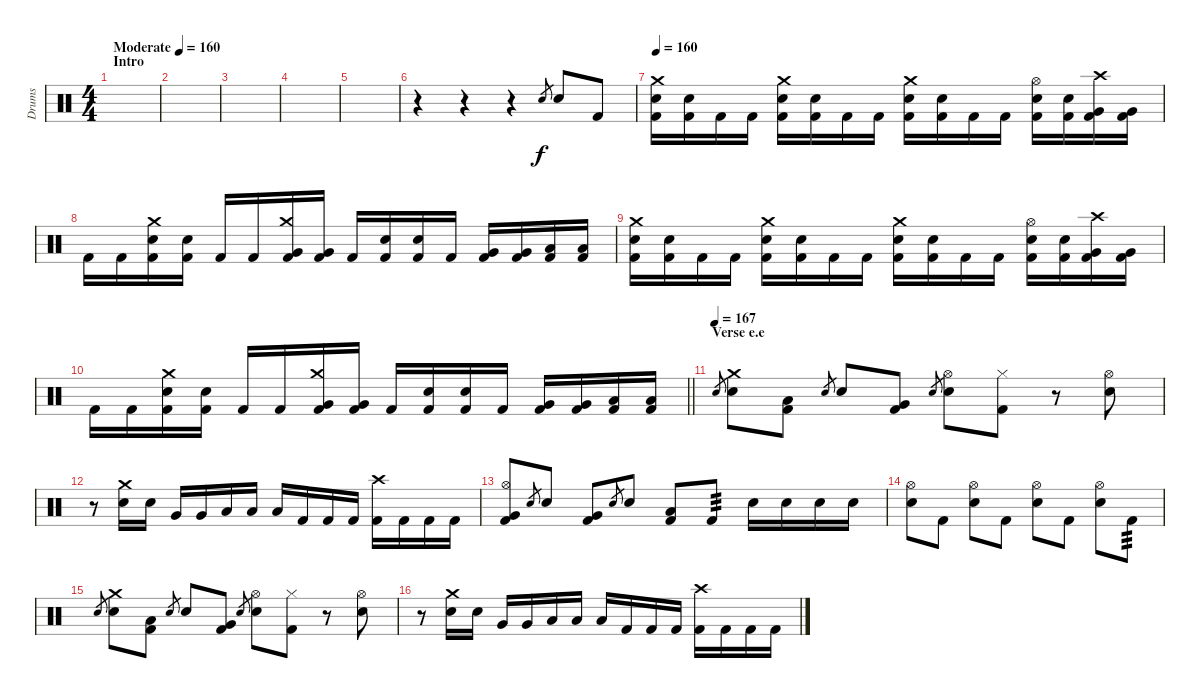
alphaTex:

\track ("Drums" "Drums") {instrument percussion}
\staff {score}
\articulation defaults
\ts (4 4)
\section ("" "Intro")
\tempo (160 "Moderate")
\tempo 153
\tempo (160 "Moderate")
\clef neutral
\ks c
|
|
|
|
|
r.4 r.4 r.4 "Electric Snare (hit)".8{gr} "Electric Snare (hit)".8 "Kick (hit) 2".8 |
\tempo 160
("Crash medium (hit)" "Electric Snare (hit)" "Kick (hit) 2").16 ("Electric Snare (hit)" "Kick (hit) 2").16 "Kick (hit) 2".16 "Kick (hit) 2".16 ("Crash medium (hit)" "Electric Snare (hit)" "Kick (hit) 2").16 ("Electric Snare (hit)" "Kick (hit) 2").16 "Kick (hit) 2".16 "Kick (hit) 2".16 ("Crash medium (hit)" "Electric Snare (hit)" "Kick (hit) 2").16 ("Electric Snare (hit)" "Kick (hit) 2").16 "Kick (hit) 2".16 "Kick (hit) 2".16 ("Hi-Hat (open)" "Electric Snare (hit)" "Kick (hit) 2").16 ("Electric Snare (hit)" "Kick (hit) 2").16 ("Crash high (hit)" "Very Low Tom (hit)" "Kick (hit) 2").16 ("Very Low Tom (hit)" "Kick (hit) 2").16 |
"Kick (hit) 2".16 "Kick (hit) 2".16 ("Crash medium (hit)" "Electric Snare (hit)" "Kick (hit) 2").16 ("Electric Snare (hit)" "Kick (hit) 2").16 "Kick (hit) 2".16 "Kick (hit) 2".16 ("Crash medium (hit)" "Very Low Tom (hit)" "Kick (hit) 2").16 ("Very Low Tom (hit)" "Kick (hit) 2").16 "Kick (hit) 2".16 ("Electric Snare (hit)" "Kick (hit) 2").16 ("Electric Snare (hit)" "Kick (hit) 2").16 "Kick (hit) 2".16 ("Very Low Tom (hit)" "Kick (hit) 2").16 ("Very Low Tom (hit)" "Kick (hit) 2").16 ("Low Floor Tom (hit)" "Kick (hit) 2").16 ("Low Floor Tom (hit)" "Kick (hit) 2").16 |
("Crash medium (hit)" "Electric Snare (hit)" "Kick (hit) 2").16 ("Electric Snare (hit)" "Kick (hit) 2").16 "Kick (hit) 2".16 "Kick (hit) 2".16 ("Crash medium (hit)" "Electric Snare (hit)" "Kick (hit) 2").16 ("Electric Snare (hit)" "Kick (hit) 2").16 "Kick (hit) 2".16 "Kick (hit) 2".16 ("Crash medium (hit)" "Electric Snare (hit)" "Kick (hit) 2").16 ("Electric Snare (hit)" "Kick (hit) 2").16 "Kick (hit) 2".16 "Kick (hit) 2".16 ("Hi-Hat (open)" "Electric Snare (hit)" "Kick (hit) 2").16 ("Electric Snare (hit)" "Kick (hit) 2").16 ("Crash high (hit)" "Very Low Tom (hit)" "Kick (hit) 2").16 ("Very Low Tom (hit)" "Kick (hit) 2").16 |
\barLineRight lightlight "Kick (hit) 2".16 "Kick (hit) 2".16
("Crash medium (hit)" "Electric Snare (hit)" "Kick (hit) 2").16 ("Electric Snare (hit)" "Kick (hit) 2").16 "Kick (hit) 2".16 "Kick (hit) 2".16 ("Crash medium (hit)" "Very Low Tom (hit)" "Kick (hit) 2").16 ("Very Low Tom (hit)" "Kick (hit) 2").16 "Kick (hit) 2".16 ("Electric Snare (hit)" "Kick (hit) 2").16 ("Electric Snare (hit)" "Kick (hit) 2").16 "Kick (hit) 2".16 ("Very Low Tom (hit)" "Kick (hit) 2").16 ("Very Low Tom (hit)" "Kick (hit) 2").16 ("Low Floor Tom (hit)" "Kick (hit) 2").16 ("Low Floor Tom (hit)" "Kick (hit) 2").16 |
\section ("" "Verse e.e")
\tempo (167)
"Electric Snare (hit)".8{gr} ("Crash medium (hit)" "Electric Snare (hit)").8 ("Low Tom (hit)" "Kick (hit) 2").8 "Electric Snare (hit)".8{gr} "Electric Snare (hit)".8 ("Very Low Tom (hit)" "Kick (hit) 2").8 "Electric Snare (hit)".8{gr} ("Hi-Hat (open)" "Electric Snare (hit)").8 ("Hi-Hat (closed)" "Kick (hit) 2").8 r.8 ("Hi-Hat (open)" "Electric Snare (hit)").8 |
r.8 ("Crash medium (hit)" "Electric Snare (hit)").16 "Electric Snare (hit)".16 "Very Low Tom (hit)".16 "Very Low Tom (hit)".16 "Low Floor Tom (hit)".16 "Low Floor Tom (hit)".16 "Low Floor Tom (hit)".16 "Kick (hit) 2".16 "Kick (hit) 2".16 "Kick (hit) 2".16 ("Crash high (hit)" "Kick (hit) 2").16 "Kick (hit) 2".16 "Kick (hit) 2".16 "Kick (hit) 2".16 |
("Hi-Hat (open)" "Very Low Tom (hit)" "Kick (hit) 2").8 "Electric Snare (hit)".8{gr} "Electric Snare (hit)".8 ("Very Low Tom (hit)" "Kick (hit) 2").8 "Electric Snare (hit)".8{gr} "Electric Snare (hit)".8 ("Low Floor Tom (hit)" "Kick (hit) 2").8 "Kick (hit) 2".8{tp 3} "Electric Snare (hit)".16 "Electric Snare (hit)".16 "Electric Snare (hit)".16 "Electric Snare (hit)".16 |
("Hi-Hat (open)" "Electric Snare (hit)").8 "Kick (hit) 2".8 ("Hi-Hat (open)" "Electric Snare (hit)").8 "Kick (hit) 2".8 ("Hi-Hat (open)" "Electric Snare (hit)").8 "Kick (hit) 2".8 ("Hi-Hat (open)" "Electric Snare (hit)").8 "Kick (hit) 2".8{tp 3} |
"Electric Snare (hit)".8{gr} ("Crash medium (hit)" "Electric Snare (hit)").8 ("Low Tom (hit)" "Kick (hit) 2").8 "Electric Snare (hit)".8{gr} "Electric Snare (hit)".8 ("Very Low Tom (hit)" "Kick (hit) 2").8 "Electric Snare (hit)".8{gr} ("Hi-Hat (open)" "Electric Snare (hit)").8 ("Hi-Hat (closed)" "Kick (hit) 2").8 r.8 ("Hi-Hat (open)" "Electric Snare (hit)").8 |
r.8 ("Crash medium (hit)" "Electric Snare (hit)").16 "Electric Snare (hit)".16 "Very Low Tom (hit)".16 "Very Low Tom (hit)".16 "Low Floor Tom (hit)".16 "Low Floor Tom (hit)".16 "Low Floor Tom (hit)".16 "Kick (hit) 2".16 "Kick (hit) 2".16 "Kick (hit) 2".16 ("Crash high (hit)" "Kick (hit) 2").16 "Kick (hit) 2".16 "Kick (hit) 2".16 "Kick (hit) 2".16
